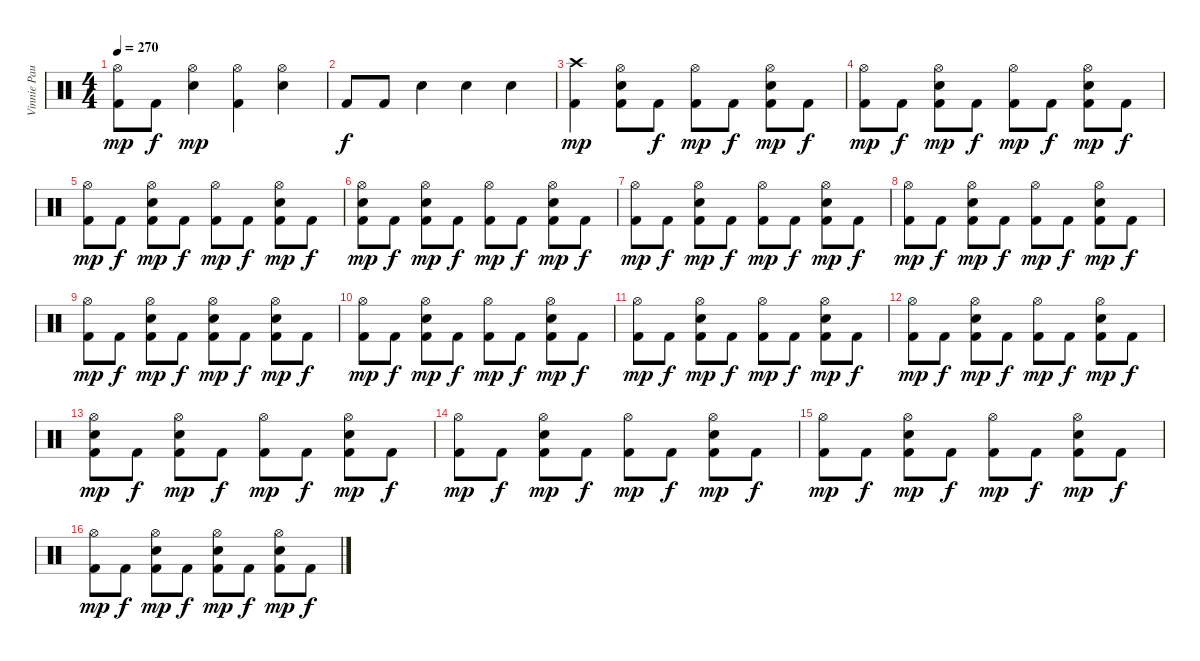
\track ("Vinnie Paul" "Vinnie Pau") {instrument percussion}
\staff {score}
\articulation defaults
\ts (4 4)
\tempo 270
\clef neutral
\ks c
("Hi-Hat (open)" "Kick (hit) 2").8{dy mp} "Kick (hit) 2".8{dy f} ("Hi-Hat (open)" "Electric Snare (hit)").4{dy mp} ("Hi-Hat (open)" "Kick (hit) 2").4 ("Hi-Hat (open)" "Electric Snare (hit)").4 |
"Kick (hit) 2".8{dy f} "Kick (hit) 2".8 "Electric Snare (hit)".4 "Electric Snare (hit)".4 "Electric Snare (hit)".4 |
("Crash high (hit)" "Kick (hit) 2").4{dy mp} ("Hi-Hat (open)" "Electric Snare (hit)" "Kick (hit) 2").8 "Kick (hit) 2".8{dy f} ("Hi-Hat (open)" "Kick (hit) 2").8{dy mp} "Kick (hit) 2".8{dy f} ("Hi-Hat (open)" "Electric Snare (hit)" "Kick (hit) 2").8{dy mp} "Kick (hit) 2".8{dy f} |
("Hi-Hat (open)" "Kick (hit) 2").8{dy mp} "Kick (hit) 2".8{dy f} ("Hi-Hat (open)" "Electric Snare (hit)" "Kick (hit) 2").8{dy mp} "Kick (hit) 2".8{dy f} ("Hi-Hat (open)" "Kick (hit) 2").8{dy mp} "Kick (hit) 2".8{dy f} ("Hi-Hat (open)" "Electric Snare (hit)" "Kick (hit) 2").8{dy mp} "Kick (hit) 2".8{dy f} |
("Hi-Hat (open)" "Kick (hit) 2").8{dy mp} "Kick (hit) 2".8{dy f} ("Hi-Hat (open)" "Electric Snare (hit)" "Kick (hit) 2").8{dy mp} "Kick (hit) 2".8{dy f} ("Hi-Hat (open)" "Kick (hit) 2").8{dy mp} "Kick (hit) 2".8{dy f} ("Hi-Hat (open)" "Electric Snare (hit)" "Kick (hit) 2").8{dy mp} "Kick (hit) 2".8{dy f} |
("Hi-Hat (open)" "Electric Snare (hit)" "Kick (hit) 2").8{dy mp} "Kick (hit) 2".8{dy f} ("Hi-Hat (open)" "Electric Snare (hit)" "Kick (hit) 2").8{dy mp} "Kick (hit) 2".8{dy f} ("Hi-Hat (open)" "Kick (hit) 2").8{dy mp} "Kick (hit) 2".8{dy f} ("Hi-Hat (open)" "Electric Snare (hit)" "Kick (hit) 2").8{dy mp} "Kick (hit) 2".8{dy f} |
("Hi-Hat (open)" "Kick (hit) 2").8{dy mp} "Kick (hit) 2".8{dy f} ("Hi-Hat (open)" "Electric Snare (hit)" "Kick (hit) 2").8{dy mp} "Kick (hit) 2".8{dy f} ("Hi-Hat (open)" "Kick (hit) 2").8{dy mp} "Kick (hit) 2".8{dy f} ("Hi-Hat (open)" "Electric Snare (hit)" "Kick (hit) 2").8{dy mp} "Kick (hit) 2".8{dy f} |
("Hi-Hat (open)" "Kick (hit) 2").8{dy mp} "Kick (hit) 2".8{dy f} ("Hi-Hat (open)" "Electric Snare (hit)" "Kick (hit) 2").8{dy mp} "Kick (hit) 2".8{dy f} ("Hi-Hat (open)" "Kick (hit) 2").8{dy mp} "Kick (hit) 2".8{dy f} ("Hi-Hat (open)" "Electric Snare (hit)" "Kick (hit) 2").8{dy mp} "Kick (hit) 2".8{dy f} |
("Hi-Hat (open)" "Kick (hit) 2").8{dy mp} "Kick (hit) 2".8{dy f} ("Hi-Hat (open)" "Electric Snare (hit)" "Kick (hit) 2").8{dy mp} "Kick (hit) 2".8{dy f} ("Hi-Hat (open)" "Electric Snare (hit)" "Kick (hit) 2").8{dy mp} "Kick (hit) 2".8{dy f} ("Hi-Hat (open)" "Electric Snare (hit)" "Kick (hit) 2").8{dy mp} "Kick (hit) 2".8{dy f} |
("Hi-Hat (open)" "Kick (hit) 2").8{dy mp} "Kick (hit) 2".8{dy f} ("Hi-Hat (open)" "Electric Snare (hit)" "Kick (hit) 2").8{dy mp} "Kick (hit) 2".8{dy f} ("Hi-Hat (open)" "Kick (hit) 2").8{dy mp} "Kick (hit) 2".8{dy f} ("Hi-Hat (open)" "Electric Snare (hit)" "Kick (hit) 2").8{dy mp} "Kick (hit) 2".8{dy f} |
("Hi-Hat (open)" "Kick (hit) 2").8{dy mp} "Kick (hit) 2".8{dy f} ("Hi-Hat (open)" "Electric Snare (hit)" "Kick (hit) 2").8{dy mp} "Kick (hit) 2".8{dy f} ("Hi-Hat (open)" "Kick (hit) 2").8{dy mp} "Kick (hit) 2".8{dy f} ("Hi-Hat (open)" "Electric Snare (hit)" "Kick (hit) 2").8{dy mp} "Kick (hit) 2".8{dy f} |
("Hi-Hat (open)" "Kick (hit) 2").8{dy mp} "Kick (hit) 2".8{dy f} ("Hi-Hat (open)" "Electric Snare (hit)" "Kick (hit) 2").8{dy mp} "Kick (hit) 2".8{dy f} ("Hi-Hat (open)" "Kick (hit) 2").8{dy mp} "Kick (hit) 2".8{dy f} ("Hi-Hat (open)" "Electric Snare (hit)" "Kick (hit) 2").8{dy mp} "Kick (hit) 2".8{dy f} |
("Hi-Hat (open)" "Electric Snare (hit)" "Kick (hit) 2").8{dy mp} "Kick (hit) 2".8{dy f} ("Hi-Hat (open)" "Electric Snare (hit)" "Kick (hit) 2").8{dy mp} "Kick (hit) 2".8{dy f} ("Hi-Hat (open)" "Kick (hit) 2").8{dy mp} "Kick (hit) 2".8{dy f} ("Hi-Hat (open)" "Electric Snare (hit)" "Kick (hit) 2").8{dy mp} "Kick (hit) 2".8{dy f} |
("Hi-Hat (open)" "Kick (hit) 2").8{dy mp} "Kick (hit) 2".8{dy f} ("Hi-Hat (open)" "Electric Snare (hit)" "Kick (hit) 2").8{dy mp} "Kick (hit) 2".8{dy f} ("Hi-Hat (open)" "Kick (hit) 2").8{dy mp} "Kick (hit) 2".8{dy f} ("Hi-Hat (open)" "Electric Snare (hit)" "Kick (hit) 2").8{dy mp} "Kick (hit) 2".8{dy f} |
("Hi-Hat (open)" "Kick (hit) 2").8{dy mp} "Kick (hit) 2".8{dy f} ("Hi-Hat (open)" "Electric Snare (hit)" "Kick (hit) 2").8{dy mp} "Kick (hit) 2".8{dy f} ("Hi-Hat (open)" "Kick (hit) 2").8{dy mp} "Kick (hit) 2".8{dy f} ("Hi-Hat (open)" "Electric Snare (hit)" "Kick (hit) 2").8{dy mp} "Kick (hit) 2".8{dy f} |
("Hi-Hat (open)" "Kick (hit) 2").8{dy mp} "Kick (hit) 2".8{dy f} ("Hi-Hat (open)" "Electric Snare (hit)" "Kick (hit) 2").8{dy mp} "Kick (hit) 2".8{dy f} ("Hi-Hat (open)" "Electric Snare (hit)" "Kick (hit) 2").8{dy mp} "Kick (hit) 2".8{dy f} ("Hi-Hat (open)" "Electric Snare (hit)" "Kick (hit) 2").8{dy mp} "Kick (hit) 2".8{dy f}
